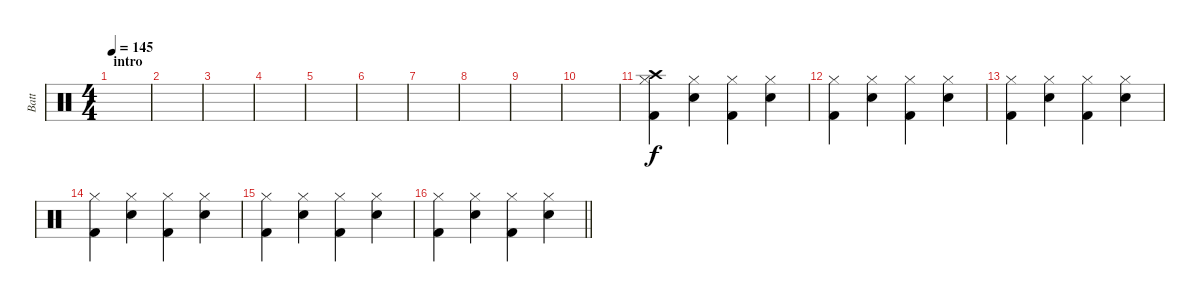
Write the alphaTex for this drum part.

\track ("Batt" "Batt") {instrument percussion}
\staff {score}
\articulation defaults
\ts (4 4)
\section ("" "intro")
\tempo 145
\clef neutral
\ks c
|
|
|
|
|
|
|
|
|
|
("Crash high (hit)" "Hi-Hat (closed)" "Kick (hit) 2").4 ("Hi-Hat (closed)" "Snare (hit) 2").4 ("Hi-Hat (closed)" "Kick (hit) 2").4 ("Hi-Hat (closed)" "Snare (hit) 2").4 |
("Hi-Hat (closed)" "Kick (hit) 2").4 ("Hi-Hat (closed)" "Snare (hit) 2").4 ("Hi-Hat (closed)" "Kick (hit) 2").4 ("Hi-Hat (closed)" "Snare (hit) 2").4 |
("Hi-Hat (closed)" "Kick (hit) 2").4 ("Hi-Hat (closed)" "Snare (hit) 2").4 ("Hi-Hat (closed)" "Kick (hit) 2").4 ("Hi-Hat (closed)" "Snare (hit) 2").4 |
("Hi-Hat (closed)" "Kick (hit) 2").4 ("Hi-Hat (closed)" "Snare (hit) 2").4 ("Hi-Hat (closed)" "Kick (hit) 2").4 ("Hi-Hat (closed)" "Snare (hit) 2").4 |
("Hi-Hat (closed)" "Kick (hit) 2").4 ("Hi-Hat (closed)" "Snare (hit) 2").4 ("Hi-Hat (closed)" "Kick (hit) 2").4 ("Hi-Hat (closed)" "Snare (hit) 2").4 |
\barLineRight lightlight
("Hi-Hat (closed)" "Kick (hit) 2").4 ("Hi-Hat (closed)" "Snare (hit) 2").4 ("Hi-Hat (closed)" "Kick (hit) 2").4 ("Hi-Hat (closed)" "Snare (hit) 2").4
